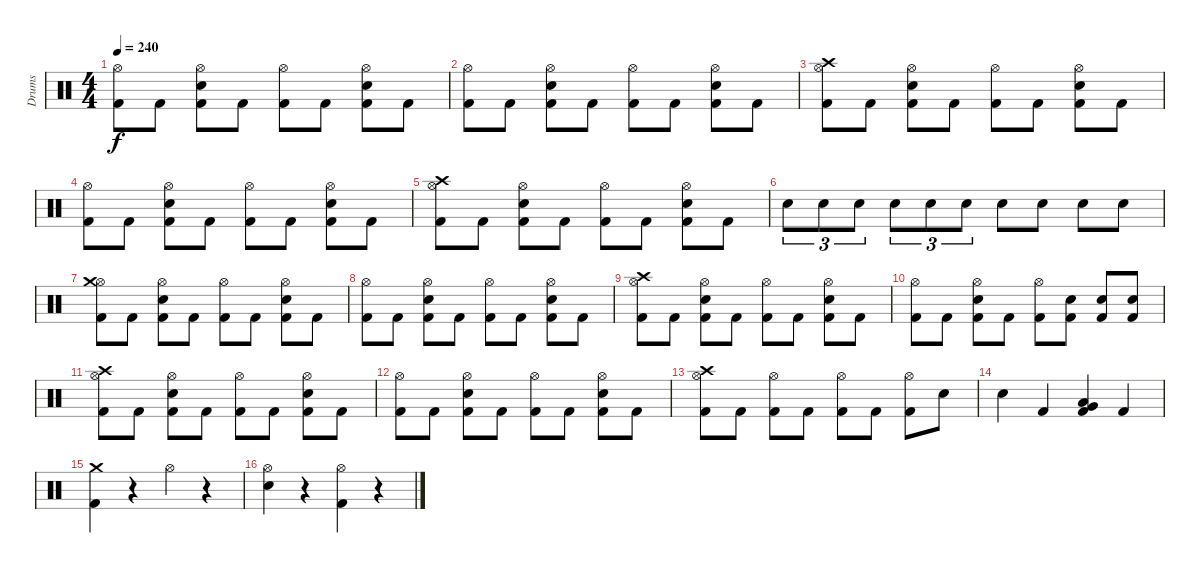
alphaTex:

\track ("Drums" "Drums") {instrument percussion}
\staff {score}
\articulation defaults
\ts (4 4)
\tempo 240
\clef neutral
\ks c
("Hi-Hat (open)" "Kick (hit) 2").8{dy f} "Kick (hit) 2".8 ("Hi-Hat (open)" "Snare (hit) 2" "Kick (hit) 2").8 "Kick (hit) 2".8 ("Hi-Hat (open)" "Kick (hit) 2").8 "Kick (hit) 2".8 ("Hi-Hat (open)" "Snare (hit) 2" "Kick (hit) 2").8 "Kick (hit) 2".8 |
("Hi-Hat (open)" "Kick (hit) 2").8 "Kick (hit) 2".8 ("Hi-Hat (open)" "Snare (hit) 2" "Kick (hit) 2").8 "Kick (hit) 2".8 ("Hi-Hat (open)" "Kick (hit) 2").8 "Kick (hit) 2".8 ("Hi-Hat (open)" "Snare (hit) 2" "Kick (hit) 2").8 "Kick (hit) 2".8 |
("Hi-Hat (open)" "Crash high (hit)" "Kick (hit) 2").8 "Kick (hit) 2".8 ("Hi-Hat (open)" "Snare (hit) 2" "Kick (hit) 2").8 "Kick (hit) 2".8 ("Hi-Hat (open)" "Kick (hit) 2").8 "Kick (hit) 2".8 ("Hi-Hat (open)" "Snare (hit) 2" "Kick (hit) 2").8 "Kick (hit) 2".8 |
("Hi-Hat (open)" "Kick (hit) 2").8 "Kick (hit) 2".8 ("Hi-Hat (open)" "Snare (hit) 2" "Kick (hit) 2").8 "Kick (hit) 2".8 ("Hi-Hat (open)" "Kick (hit) 2").8 "Kick (hit) 2".8 ("Hi-Hat (open)" "Snare (hit) 2" "Kick (hit) 2").8 "Kick (hit) 2".8 |
("Hi-Hat (open)" "Crash high (hit)" "Kick (hit) 2").8 "Kick (hit) 2".8 ("Hi-Hat (open)" "Snare (hit) 2" "Kick (hit) 2").8 "Kick (hit) 2".8 ("Hi-Hat (open)" "Kick (hit) 2").8 "Kick (hit) 2".8 ("Hi-Hat (open)" "Snare (hit) 2" "Kick (hit) 2").8 "Kick (hit) 2".8 |
"Snare (hit) 2".8{tu (3 2)} "Snare (hit) 2".8{tu (3 2)} "Snare (hit) 2".8{tu (3 2)} "Snare (hit) 2".8{tu (3 2)} "Snare (hit) 2".8{tu (3 2)} "Snare (hit) 2".8{tu (3 2)} "Snare (hit) 2".8 "Snare (hit) 2".8 "Snare (hit) 2".8 "Snare (hit) 2".8 |
("Hi-Hat (open)" "Crash medium (hit)" "Kick (hit) 2").8 "Kick (hit) 2".8 ("Hi-Hat (open)" "Snare (hit) 2" "Kick (hit) 2").8 "Kick (hit) 2".8 ("Hi-Hat (open)" "Kick (hit) 2").8 "Kick (hit) 2".8 ("Hi-Hat (open)" "Snare (hit) 2" "Kick (hit) 2").8 "Kick (hit) 2".8 |
("Hi-Hat (open)" "Kick (hit) 2").8 "Kick (hit) 2".8 ("Hi-Hat (open)" "Snare (hit) 2" "Kick (hit) 2").8 "Kick (hit) 2".8 ("Hi-Hat (open)" "Kick (hit) 2").8 "Kick (hit) 2".8 ("Hi-Hat (open)" "Snare (hit) 2" "Kick (hit) 2").8 "Kick (hit) 2".8 |
("Hi-Hat (open)" "Crash high (hit)" "Kick (hit) 2").8 "Kick (hit) 2".8 ("Hi-Hat (open)" "Snare (hit) 2" "Kick (hit) 2").8 "Kick (hit) 2".8 ("Hi-Hat (open)" "Kick (hit) 2").8 "Kick (hit) 2".8 ("Hi-Hat (open)" "Snare (hit) 2" "Kick (hit) 2").8 "Kick (hit) 2".8 |
("Hi-Hat (open)" "Kick (hit) 2").8 "Kick (hit) 2".8 ("Hi-Hat (open)" "Snare (hit) 2" "Kick (hit) 2").8 "Kick (hit) 2".8 ("Hi-Hat (open)" "Kick (hit) 2").8 ("Snare (hit) 2" "Kick (hit) 2").8 ("Snare (hit) 2" "Kick (hit) 2").8 ("Snare (hit) 2" "Kick (hit) 2").8 |
("Hi-Hat (open)" "Crash high (hit)" "Kick (hit) 2").8 "Kick (hit) 2".8 ("Hi-Hat (open)" "Snare (hit) 2" "Kick (hit) 2").8 "Kick (hit) 2".8 ("Hi-Hat (open)" "Kick (hit) 2").8 "Kick (hit) 2".8 ("Hi-Hat (open)" "Snare (hit) 2" "Kick (hit) 2").8 "Kick (hit) 2".8 |
("Hi-Hat (open)" "Kick (hit) 2").8 "Kick (hit) 2".8 ("Hi-Hat (open)" "Snare (hit) 2" "Kick (hit) 2").8 "Kick (hit) 2".8 ("Hi-Hat (open)" "Kick (hit) 2").8 "Kick (hit) 2".8 ("Hi-Hat (open)" "Snare (hit) 2" "Kick (hit) 2").8 "Kick (hit) 2".8 |
("Hi-Hat (open)" "Crash high (hit)" "Kick (hit) 2").8 "Kick (hit) 2".8 ("Hi-Hat (open)" "Kick (hit) 2").8 "Kick (hit) 2".8 ("Hi-Hat (open)" "Kick (hit) 2").8 "Kick (hit) 2".8 ("Hi-Hat (open)" "Kick (hit) 2").8 "Snare (hit) 2".8 |
"Snare (hit) 2".4 "Kick (hit) 2".4 ("Very Low Tom (hit)" "Low Floor Tom (hit)" "Kick (hit) 2").4 "Kick (hit) 2".4 |
("Crash medium (hit)" "Kick (hit) 2").4 r.4 "Hi-Hat (open)".4 r.4 |
("Hi-Hat (open)" "Snare (hit) 2").4 r.4 ("Hi-Hat (open)" "Kick (hit) 2").4 r.4
